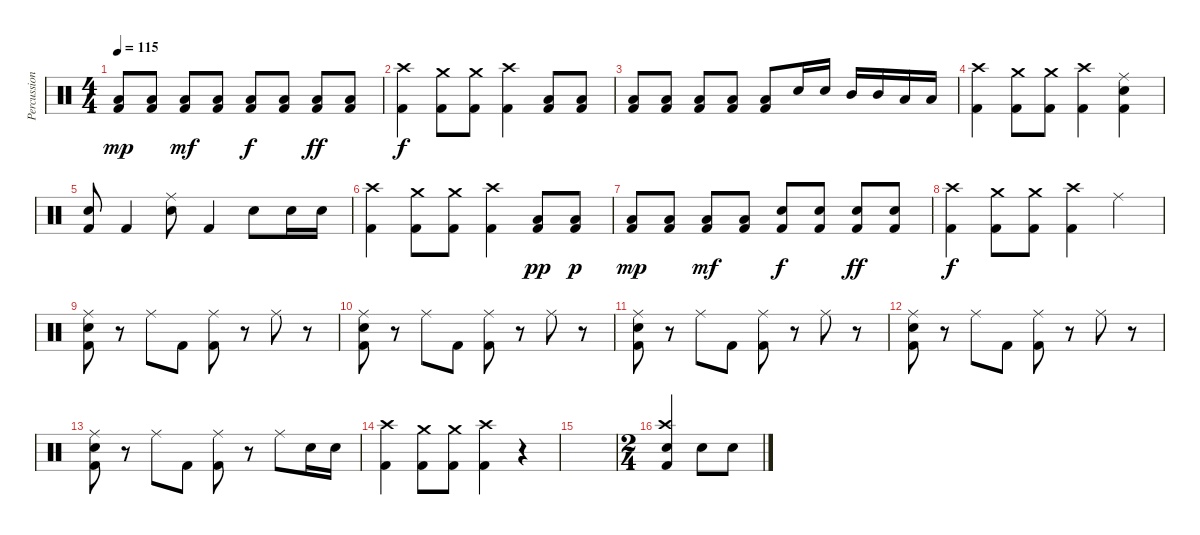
\track ("Percussion" "Percussion") {instrument percussion}
\staff {score}
\articulation defaults
\ts (4 4)
\tempo 115
\clef neutral
\ks c
("Low Floor Tom (hit)" "Kick (hit) 2").8{dy mp} ("Low Floor Tom (hit)" "Kick (hit) 2").8 ("Low Floor Tom (hit)" "Kick (hit) 2").8{dy mf} ("Low Floor Tom (hit)" "Kick (hit) 2").8 ("Low Floor Tom (hit)" "Kick (hit) 2").8{dy f} ("Low Floor Tom (hit)" "Kick (hit) 2").8 ("Low Floor Tom (hit)" "Kick (hit) 2").8{dy ff} ("Low Floor Tom (hit)" "Kick (hit) 2").8 |
("Crash high (hit)" "Kick (hit) 2").4{dy f} ("Crash medium (hit)" "Kick (hit) 2").8 ("Crash medium (hit)" "Kick (hit) 2").8 ("Crash high (hit)" "Kick (hit) 2").4 ("Low Floor Tom (hit)" "Kick (hit) 2").8 ("Low Floor Tom (hit)" "Kick (hit) 2").8 |
("Low Floor Tom (hit)" "Kick (hit) 2").8 ("Low Floor Tom (hit)" "Kick (hit) 2").8 ("Low Floor Tom (hit)" "Kick (hit) 2").8 ("Low Floor Tom (hit)" "Kick (hit) 2").8 ("Low Floor Tom (hit)" "Kick (hit) 2").8 "Electric Snare (hit)".16 "Electric Snare (hit)".16 "Mid Tom (hit)".16 "Mid Tom (hit)".16 "Low Tom (hit)".16 "Low Tom (hit)".16 |
("Crash high (hit)" "Kick (hit) 2").4 ("Crash medium (hit)" "Kick (hit) 2").8 ("Crash medium (hit)" "Kick (hit) 2").8 ("Crash high (hit)" "Kick (hit) 2").4 ("Ride (middle)" "Electric Snare (hit)" "Kick (hit) 2").4 |
("Electric Snare (hit)" "Kick (hit) 2").8 "Kick (hit) 2".4 ("Ride (middle)" "Electric Snare (hit)").8 "Kick (hit) 2".4 "Electric Snare (hit)".8 "Electric Snare (hit)".16 "Electric Snare (hit)".16 |
("Crash high (hit)" "Kick (hit) 2").4 ("Crash medium (hit)" "Kick (hit) 2").8 ("Crash medium (hit)" "Kick (hit) 2").8 ("Crash high (hit)" "Kick (hit) 2").4 ("Low Floor Tom (hit)" "Kick (hit) 2").8{dy pp} ("Low Floor Tom (hit)" "Kick (hit) 2").8{dy p} |
("Low Floor Tom (hit)" "Kick (hit) 2").8{dy mp} ("Low Floor Tom (hit)" "Kick (hit) 2").8 ("Low Floor Tom (hit)" "Kick (hit) 2").8{dy mf} ("Low Floor Tom (hit)" "Kick (hit) 2").8 ("Electric Snare (hit)" "Kick (hit) 2").8{dy f} ("Electric Snare (hit)" "Kick (hit) 2").8 ("Electric Snare (hit)" "Kick (hit) 2").8{dy ff} ("Electric Snare (hit)" "Kick (hit) 2").8 |
("Crash high (hit)" "Kick (hit) 2").4{dy f} ("Crash medium (hit)" "Kick (hit) 2").8 ("Crash medium (hit)" "Kick (hit) 2").8 ("Crash high (hit)" "Kick (hit) 2").4 "Ride (middle)".4 |
("Ride (middle)" "Electric Snare (hit)" "Kick (hit) 2").8 r.8 "Ride (middle)".8 "Kick (hit) 2".8 ("Ride (middle)" "Kick (hit) 2").8 r.8 "Ride (middle)".8 r.8 |
("Ride (middle)" "Electric Snare (hit)" "Kick (hit) 2").8 r.8 "Ride (middle)".8 "Kick (hit) 2".8 ("Ride (middle)" "Kick (hit) 2").8 r.8 "Ride (middle)".8 r.8 |
("Ride (middle)" "Electric Snare (hit)" "Kick (hit) 2").8 r.8 "Ride (middle)".8 "Kick (hit) 2".8 ("Ride (middle)" "Kick (hit) 2").8 r.8 "Ride (middle)".8 r.8 |
("Ride (middle)" "Electric Snare (hit)" "Kick (hit) 2").8 r.8 "Ride (middle)".8 "Kick (hit) 2".8 ("Ride (middle)" "Kick (hit) 2").8 r.8 "Ride (middle)".8 r.8 |
("Ride (middle)" "Electric Snare (hit)" "Kick (hit) 2").8 r.8 "Ride (middle)".8 "Kick (hit) 2".8 ("Ride (middle)" "Kick (hit) 2").8 r.8 "Ride (middle)".8 "Electric Snare (hit)".16 "Electric Snare (hit)".16 |
("Crash high (hit)" "Kick (hit) 2").4 ("Crash medium (hit)" "Kick (hit) 2").8 ("Crash medium (hit)" "Kick (hit) 2").8 ("Crash high (hit)" "Kick (hit) 2").4 r.4 |
|
\ts (2 4)
("Crash high (hit)" "Electric Snare (hit)" "Kick (hit) 2").4 "Electric Snare (hit)".8 "Electric Snare (hit)".8
